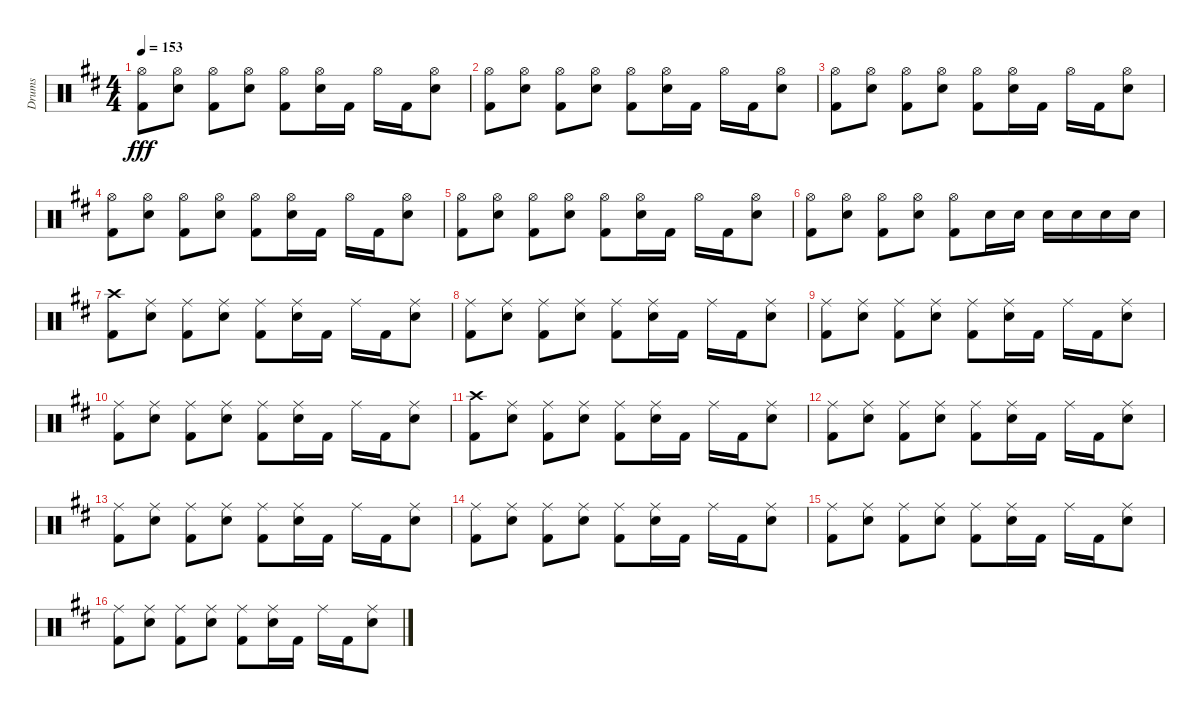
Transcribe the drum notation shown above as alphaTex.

\track ("Drums" "Drums") {instrument percussion}
\staff {score}
\articulation defaults
\ts (4 4)
\tempo 153
\clef neutral
\ks d
("Hi-Hat (open)" "Kick (hit) 2").8{dy fff} ("Hi-Hat (open)" "Electric Snare (hit)").8 ("Hi-Hat (open)" "Kick (hit) 2").8 ("Hi-Hat (open)" "Electric Snare (hit)").8 ("Hi-Hat (open)" "Kick (hit) 2").8 ("Hi-Hat (open)" "Electric Snare (hit)").16 "Kick (hit) 2".16 "Hi-Hat (open)".16 "Kick (hit) 2".16 ("Hi-Hat (open)" "Electric Snare (hit)").8 |
("Hi-Hat (open)" "Kick (hit) 2").8 ("Hi-Hat (open)" "Electric Snare (hit)").8 ("Hi-Hat (open)" "Kick (hit) 2").8 ("Hi-Hat (open)" "Electric Snare (hit)").8 ("Hi-Hat (open)" "Kick (hit) 2").8 ("Hi-Hat (open)" "Electric Snare (hit)").16 "Kick (hit) 2".16 "Hi-Hat (open)".16 "Kick (hit) 2".16 ("Hi-Hat (open)" "Electric Snare (hit)").8 |
("Hi-Hat (open)" "Kick (hit) 2").8 ("Hi-Hat (open)" "Electric Snare (hit)").8 ("Hi-Hat (open)" "Kick (hit) 2").8 ("Hi-Hat (open)" "Electric Snare (hit)").8 ("Hi-Hat (open)" "Kick (hit) 2").8 ("Hi-Hat (open)" "Electric Snare (hit)").16 "Kick (hit) 2".16 "Hi-Hat (open)".16 "Kick (hit) 2".16 ("Hi-Hat (open)" "Electric Snare (hit)").8 |
("Hi-Hat (open)" "Kick (hit) 2").8 ("Hi-Hat (open)" "Electric Snare (hit)").8 ("Hi-Hat (open)" "Kick (hit) 2").8 ("Hi-Hat (open)" "Electric Snare (hit)").8 ("Hi-Hat (open)" "Kick (hit) 2").8 ("Hi-Hat (open)" "Electric Snare (hit)").16 "Kick (hit) 2".16 "Hi-Hat (open)".16 "Kick (hit) 2".16 ("Hi-Hat (open)" "Electric Snare (hit)").8 |
("Hi-Hat (open)" "Kick (hit) 2").8 ("Hi-Hat (open)" "Electric Snare (hit)").8 ("Hi-Hat (open)" "Kick (hit) 2").8 ("Hi-Hat (open)" "Electric Snare (hit)").8 ("Hi-Hat (open)" "Kick (hit) 2").8 ("Hi-Hat (open)" "Electric Snare (hit)").16 "Kick (hit) 2".16 "Hi-Hat (open)".16 "Kick (hit) 2".16 ("Hi-Hat (open)" "Electric Snare (hit)").8 |
("Hi-Hat (open)" "Kick (hit) 2").8 ("Hi-Hat (open)" "Electric Snare (hit)").8 ("Hi-Hat (open)" "Kick (hit) 2").8 ("Hi-Hat (open)" "Electric Snare (hit)").8 ("Hi-Hat (open)" "Kick (hit) 2").8 "Electric Snare (hit)".16 "Electric Snare (hit)".16 "Electric Snare (hit)".16 "Electric Snare (hit)".16 "Electric Snare (hit)".16 "Electric Snare (hit)".16 |
("Crash high (hit)" "Kick (hit) 2").8 ("Ride (middle)" "Electric Snare (hit)").8 ("Ride (middle)" "Kick (hit) 2").8 ("Ride (middle)" "Electric Snare (hit)").8 ("Ride (middle)" "Kick (hit) 2").8 ("Ride (middle)" "Electric Snare (hit)").16 "Kick (hit) 2".16 "Ride (middle)".16 "Kick (hit) 2".16 ("Ride (middle)" "Electric Snare (hit)").8 |
("Ride (middle)" "Kick (hit) 2").8 ("Ride (middle)" "Electric Snare (hit)").8 ("Ride (middle)" "Kick (hit) 2").8 ("Ride (middle)" "Electric Snare (hit)").8 ("Ride (middle)" "Kick (hit) 2").8 ("Ride (middle)" "Electric Snare (hit)").16 "Kick (hit) 2".16 "Ride (middle)".16 "Kick (hit) 2".16 ("Ride (middle)" "Electric Snare (hit)").8 |
("Ride (middle)" "Kick (hit) 2").8 ("Ride (middle)" "Electric Snare (hit)").8 ("Ride (middle)" "Kick (hit) 2").8 ("Ride (middle)" "Electric Snare (hit)").8 ("Ride (middle)" "Kick (hit) 2").8 ("Ride (middle)" "Electric Snare (hit)").16 "Kick (hit) 2".16 "Ride (middle)".16 "Kick (hit) 2".16 ("Ride (middle)" "Electric Snare (hit)").8 |
("Ride (middle)" "Kick (hit) 2").8 ("Ride (middle)" "Electric Snare (hit)").8 ("Ride (middle)" "Kick (hit) 2").8 ("Ride (middle)" "Electric Snare (hit)").8 ("Ride (middle)" "Kick (hit) 2").8 ("Ride (middle)" "Electric Snare (hit)").16 "Kick (hit) 2".16 "Ride (middle)".16 "Kick (hit) 2".16 ("Ride (middle)" "Electric Snare (hit)").8 |
("Crash high (hit)" "Kick (hit) 2").8 ("Ride (middle)" "Electric Snare (hit)").8 ("Ride (middle)" "Kick (hit) 2").8 ("Ride (middle)" "Electric Snare (hit)").8 ("Ride (middle)" "Kick (hit) 2").8 ("Ride (middle)" "Electric Snare (hit)").16 "Kick (hit) 2".16 "Ride (middle)".16 "Kick (hit) 2".16 ("Ride (middle)" "Electric Snare (hit)").8 |
("Ride (middle)" "Kick (hit) 2").8 ("Ride (middle)" "Electric Snare (hit)").8 ("Ride (middle)" "Kick (hit) 2").8 ("Ride (middle)" "Electric Snare (hit)").8 ("Ride (middle)" "Kick (hit) 2").8 ("Ride (middle)" "Electric Snare (hit)").16 "Kick (hit) 2".16 "Ride (middle)".16 "Kick (hit) 2".16 ("Ride (middle)" "Electric Snare (hit)").8 |
("Ride (middle)" "Kick (hit) 2").8 ("Ride (middle)" "Electric Snare (hit)").8 ("Ride (middle)" "Kick (hit) 2").8 ("Ride (middle)" "Electric Snare (hit)").8 ("Ride (middle)" "Kick (hit) 2").8 ("Ride (middle)" "Electric Snare (hit)").16 "Kick (hit) 2".16 "Ride (middle)".16 "Kick (hit) 2".16 ("Ride (middle)" "Electric Snare (hit)").8 |
("Ride (middle)" "Kick (hit) 2").8 ("Ride (middle)" "Electric Snare (hit)").8 ("Ride (middle)" "Kick (hit) 2").8 ("Ride (middle)" "Electric Snare (hit)").8 ("Ride (middle)" "Kick (hit) 2").8 ("Ride (middle)" "Electric Snare (hit)").16 "Kick (hit) 2".16 "Ride (middle)".16 "Kick (hit) 2".16 ("Ride (middle)" "Electric Snare (hit)").8 |
("Ride (middle)" "Kick (hit) 2").8 ("Ride (middle)" "Electric Snare (hit)").8 ("Ride (middle)" "Kick (hit) 2").8 ("Ride (middle)" "Electric Snare (hit)").8 ("Ride (middle)" "Kick (hit) 2").8 ("Ride (middle)" "Electric Snare (hit)").16 "Kick (hit) 2".16 "Ride (middle)".16 "Kick (hit) 2".16 ("Ride (middle)" "Electric Snare (hit)").8 |
("Ride (middle)" "Kick (hit) 2").8 ("Ride (middle)" "Electric Snare (hit)").8 ("Ride (middle)" "Kick (hit) 2").8 ("Ride (middle)" "Electric Snare (hit)").8 ("Ride (middle)" "Kick (hit) 2").8 ("Ride (middle)" "Electric Snare (hit)").16 "Kick (hit) 2".16 "Ride (middle)".16 "Kick (hit) 2".16 ("Ride (middle)" "Electric Snare (hit)").8
